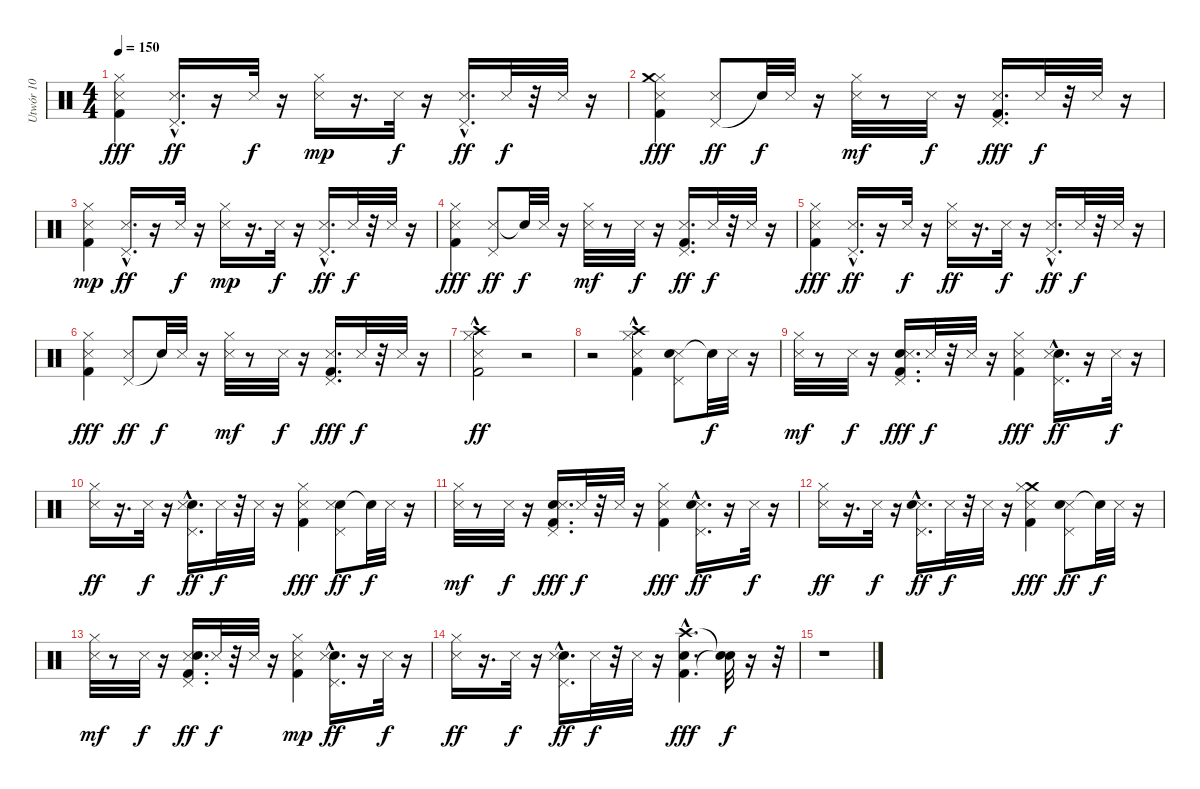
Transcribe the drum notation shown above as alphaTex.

\track ("Utwór 10" "Utwór 10") {instrument percussion}
\staff {score}
\articulation defaults
\ts (4 4)
\tempo 150
\clef neutral
\ks c
("Hi-Hat (closed)" "Kick (hit) 2" "Snare (side stick) 3").4{dy fff} ("Snare (side stick) 3" "Pedal Hi-Hat (hit)"{hac}).16{d dy ff} r.16 "Snare (side stick) 3".32{dy f} r.16 ("Snare (side stick) 3" "Hi-Hat (closed)").16{dy mp} r.16{d} "Snare (side stick) 3".32{dy f} r.16 ("Snare (side stick) 3" "Pedal Hi-Hat (hit)"{hac}).16{d dy ff} "Snare (side stick) 3".32{dy f} r.32 "Snare (side stick) 3".32 r.16 |
("Hi-Hat (closed)" "Kick (hit) 2" "Crash medium (hit)" "Snare (side stick) 3").4{dy fff} ("Pedal Hi-Hat (hit)" "Snare (side stick) 3").8{dy ff} "Snare (hit)"{t}.32{dy f} "Snare (side stick) 3".32 r.16 ("Snare (side stick) 3" "Hi-Hat (closed)").32{dy mf} r.8 "Snare (side stick) 3".32{dy f} r.16 ("Pedal Hi-Hat (hit)" "Snare (side stick) 3" "Kick (hit) 2").16{d dy fff} "Snare (side stick) 3".32{dy f} r.32 "Snare (side stick) 3".32 r.16 |
("Kick (hit) 2" "Snare (side stick) 3" "Hi-Hat (closed)").4{dy mp} ("Snare (side stick) 3" "Pedal Hi-Hat (hit)"{hac}).16{d dy ff} r.16 "Snare (side stick) 3".32{dy f} r.16 ("Snare (side stick) 3" "Hi-Hat (closed)").16{dy mp} r.16{d} "Snare (side stick) 3".32{dy f} r.16 ("Pedal Hi-Hat (hit)"{hac} "Snare (side stick) 3").16{d dy ff} "Snare (side stick) 3".32{dy f} r.32 "Snare (side stick) 3".32 r.16 |
("Snare (side stick) 3" "Hi-Hat (closed)" "Kick (hit) 2").4{dy fff} ("Snare (side stick) 3" "Pedal Hi-Hat (hit)").8{dy ff} "Snare (hit)"{t}.32{dy f} "Snare (side stick) 3".32 r.16 ("Snare (side stick) 3" "Hi-Hat (closed)").32{dy mf} r.8 "Snare (side stick) 3".32{dy f} r.16 ("Snare (side stick) 3" "Kick (hit) 2" "Pedal Hi-Hat (hit)").16{d dy ff} "Snare (side stick) 3".32{dy f} r.32 "Snare (side stick) 3".32 r.16 |
("Hi-Hat (closed)" "Snare (side stick) 3" "Kick (hit) 2").4{dy fff} ("Pedal Hi-Hat (hit)"{hac} "Snare (side stick) 3").16{d dy ff} r.16 "Snare (side stick) 3".32{dy f} r.16 ("Hi-Hat (closed)" "Snare (side stick) 3").16{dy ff} r.16{d} "Snare (side stick) 3".32{dy f} r.16 ("Pedal Hi-Hat (hit)"{hac} "Snare (side stick) 3").16{d dy ff} "Snare (side stick) 3".32{dy f} r.32 "Snare (side stick) 3".32 r.16 |
("Snare (side stick) 3" "Kick (hit) 2" "Hi-Hat (closed)").4{dy fff} ("Pedal Hi-Hat (hit)" "Snare (side stick) 3").8{dy ff} "Snare (hit)"{t}.32{dy f} "Snare (side stick) 3".32 r.16 ("Hi-Hat (closed)" "Snare (side stick) 3").32{dy mf} r.8 "Snare (side stick) 3".32{dy f} r.16 ("Pedal Hi-Hat (hit)" "Snare (side stick) 3" "Kick (hit) 2").16{d dy fff} "Snare (side stick) 3".32{dy f} r.32 "Snare (side stick) 3".32 r.16 |
("Kick (hit) 2" "Hi-Hat (closed)" "Snare (side stick) 3" "Crash high (hit)"{hac}).2{dy ff} r.2 |
r.2 ("Snare (side stick) 3" "Kick (hit) 2" "Crash high (hit)"{hac} "Hi-Hat (closed)").4 ("Snare (side stick) 3" "Pedal Hi-Hat (hit)" "Snare (hit) 2").8 "Snare (hit)"{t}.32{dy f} "Snare (side stick) 3".32 r.16 |
("Hi-Hat (closed)" "Snare (side stick) 3").32{dy mf} r.8 "Snare (side stick) 3".32{dy f} r.16 ("Snare (hit) 2" "Pedal Hi-Hat (hit)" "Snare (side stick) 3" "Kick (hit) 2").16{d dy fff} "Snare (side stick) 3".32{dy f} r.32 "Snare (side stick) 3".32 r.16 ("Hi-Hat (closed)" "Kick (hit) 2" "Snare (side stick) 3").4{dy fff} ("Pedal Hi-Hat (hit)"{hac} "Snare (hit) 2" "Snare (side stick) 3").16{d dy ff} r.16 "Snare (side stick) 3".32{dy f} r.16 |
("Hi-Hat (closed)" "Snare (side stick) 3").16{dy ff} r.16{d} "Snare (side stick) 3".32{dy f} r.16 ("Snare (hit) 2" "Pedal Hi-Hat (hit)"{hac} "Snare (side stick) 3").16{d dy ff} "Snare (side stick) 3".32{dy f} r.32 "Snare (side stick) 3".32 r.16 ("Kick (hit) 2" "Hi-Hat (closed)" "Snare (side stick) 3").4{dy fff} ("Snare (hit) 2" "Pedal Hi-Hat (hit)" "Snare (side stick) 3").8{dy ff} "Snare (hit)"{t}.32{dy f} "Snare (side stick) 3".32 r.16 |
("Hi-Hat (closed)" "Snare (side stick) 3").32{dy mf} r.8 "Snare (side stick) 3".32{dy f} r.16 ("Pedal Hi-Hat (hit)" "Snare (hit) 2" "Kick (hit) 2" "Snare (side stick) 3").16{d dy fff} "Snare (side stick) 3".32{dy f} r.32 "Snare (side stick) 3".32 r.16 ("Hi-Hat (closed)" "Kick (hit) 2" "Snare (side stick) 3").4{dy fff} ("Snare (side stick) 3" "Pedal Hi-Hat (hit)"{hac} "Snare (hit) 2").16{d dy ff} r.16 "Snare (side stick) 3".32{dy f} r.16 |
("Hi-Hat (closed)" "Snare (side stick) 3").16{dy ff} r.16{d} "Snare (side stick) 3".32{dy f} r.16 ("Snare (side stick) 3" "Snare (hit) 2" "Pedal Hi-Hat (hit)"{hac}).16{d dy ff} "Snare (side stick) 3".32{dy f} r.32 "Snare (side stick) 3".32 r.16 ("Crash medium (hit)" "Snare (side stick) 3" "Hi-Hat (closed)" "Kick (hit) 2").4{dy fff} ("Snare (side stick) 3" "Snare (hit) 2" "Pedal Hi-Hat (hit)").8{dy ff} "Snare (hit)"{t}.32{dy f} "Snare (side stick) 3".32 r.16 |
("Hi-Hat (closed)" "Snare (side stick) 3").32{dy mf} r.8 "Snare (side stick) 3".32{dy f} r.16 ("Snare (side stick) 3" "Kick (hit) 2" "Pedal Hi-Hat (hit)" "Snare (hit) 2").16{d dy ff} "Snare (side stick) 3".32{dy f} r.32 "Snare (side stick) 3".32 r.16 ("Kick (hit) 2" "Hi-Hat (closed)" "Snare (side stick) 3").4{dy mp} ("Snare (hit) 2" "Pedal Hi-Hat (hit)"{hac} "Snare (side stick) 3").16{d dy ff} r.16 "Snare (side stick) 3".32{dy f} r.16 |
("Hi-Hat (closed)" "Snare (side stick) 3").16{dy ff} r.16{d} "Snare (side stick) 3".32{dy f} r.16 ("Pedal Hi-Hat (hit)"{hac} "Snare (hit) 2" "Snare (side stick) 3").16{d dy ff} "Snare (side stick) 3".32{dy f} r.32 "Snare (side stick) 3".32 r.16 ("Kick (hit) 2"{hac} "Crash high (hit)"{hac} "Snare (hit) 2"{hac}).4{d dy fff} ("Snare (hit)"{t} "Snare (hit)"{t}).32{dy f} r.16 r.32 |
r.1
